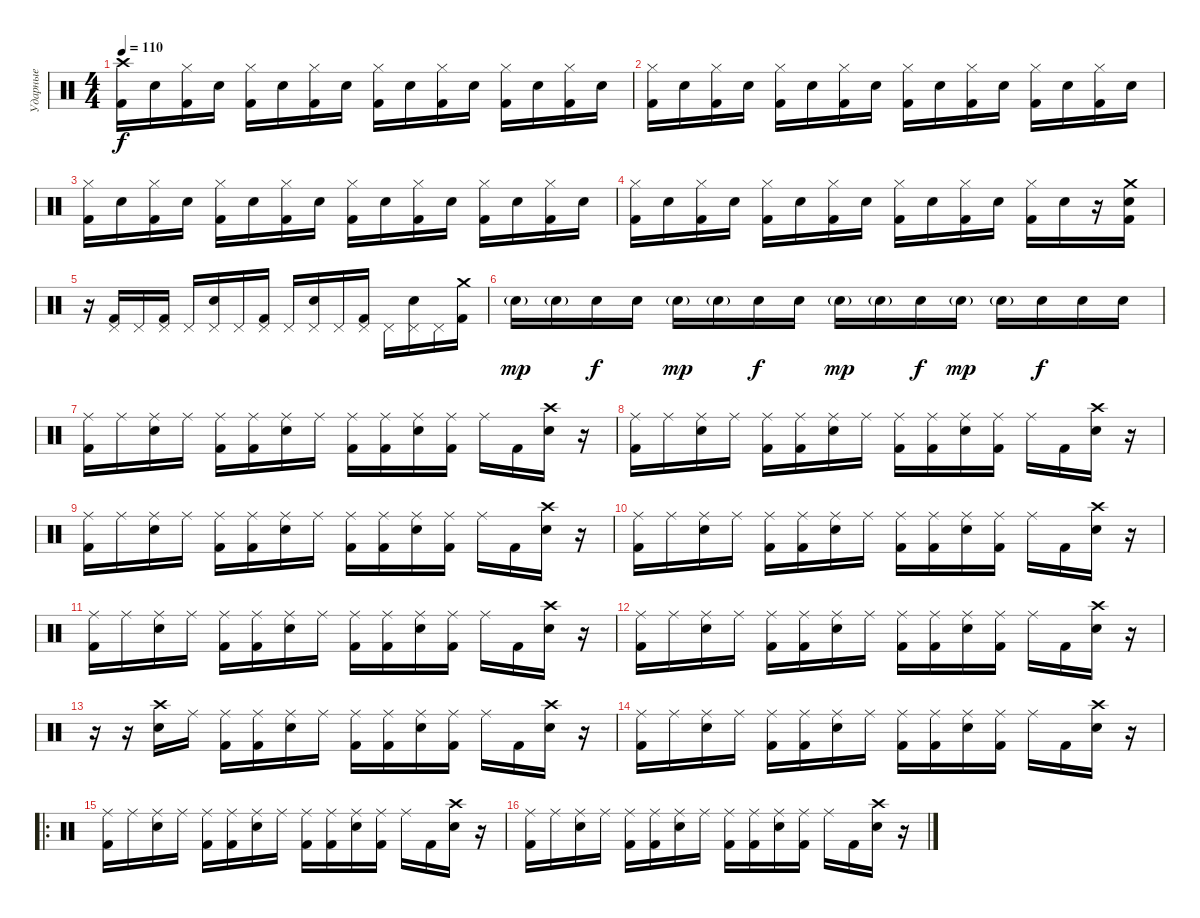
\track ("Ударные" "Ударные") {instrument percussion}
\staff {score}
\articulation defaults
\ts (4 4)
\tempo 110
\clef neutral
\ks c
("Kick (hit) 2" "Crash high (hit)").16{dy f} "Electric Snare (hit)".16 ("Kick (hit) 2" "Hi-Hat (closed)").16 "Electric Snare (hit)".16 ("Kick (hit) 2" "Hi-Hat (closed)").16 "Electric Snare (hit)".16 ("Kick (hit) 2" "Hi-Hat (closed)").16 "Electric Snare (hit)".16 ("Kick (hit) 2" "Hi-Hat (closed)").16 "Electric Snare (hit)".16 ("Kick (hit) 2" "Hi-Hat (closed)").16 "Electric Snare (hit)".16 ("Kick (hit) 2" "Hi-Hat (closed)").16 "Electric Snare (hit)".16 ("Kick (hit) 2" "Hi-Hat (closed)").16 "Electric Snare (hit)".16 |
("Kick (hit) 2" "Hi-Hat (closed)").16 "Electric Snare (hit)".16 ("Kick (hit) 2" "Hi-Hat (closed)").16 "Electric Snare (hit)".16 ("Kick (hit) 2" "Hi-Hat (closed)").16 "Electric Snare (hit)".16 ("Kick (hit) 2" "Hi-Hat (closed)").16 "Electric Snare (hit)".16 ("Kick (hit) 2" "Hi-Hat (closed)").16 "Electric Snare (hit)".16 ("Kick (hit) 2" "Hi-Hat (closed)").16 "Electric Snare (hit)".16 ("Kick (hit) 2" "Hi-Hat (closed)").16 "Electric Snare (hit)".16 ("Kick (hit) 2" "Hi-Hat (closed)").16 "Electric Snare (hit)".16 |
("Kick (hit) 2" "Hi-Hat (closed)").16 "Electric Snare (hit)".16 ("Kick (hit) 2" "Hi-Hat (closed)").16 "Electric Snare (hit)".16 ("Kick (hit) 2" "Hi-Hat (closed)").16 "Electric Snare (hit)".16 ("Kick (hit) 2" "Hi-Hat (closed)").16 "Electric Snare (hit)".16 ("Kick (hit) 2" "Hi-Hat (closed)").16 "Electric Snare (hit)".16 ("Kick (hit) 2" "Hi-Hat (closed)").16 "Electric Snare (hit)".16 ("Kick (hit) 2" "Hi-Hat (closed)").16 "Electric Snare (hit)".16 ("Kick (hit) 2" "Hi-Hat (closed)").16 "Electric Snare (hit)".16 |
("Kick (hit) 2" "Hi-Hat (closed)").16 "Electric Snare (hit)".16 ("Kick (hit) 2" "Hi-Hat (closed)").16 "Electric Snare (hit)".16 ("Kick (hit) 2" "Hi-Hat (closed)").16 "Electric Snare (hit)".16 ("Kick (hit) 2" "Hi-Hat (closed)").16 "Electric Snare (hit)".16 ("Kick (hit) 2" "Hi-Hat (closed)").16 "Electric Snare (hit)".16 ("Kick (hit) 2" "Hi-Hat (closed)").16 "Electric Snare (hit)".16 ("Kick (hit) 2" "Hi-Hat (closed)").16 "Electric Snare (hit)".16 r.16 ("Kick (hit) 2" "Electric Snare (hit)" "Crash medium (hit)").16 |
r.16 ("Kick (hit) 2" "Pedal Hi-Hat (hit)").16 "Pedal Hi-Hat (hit)".16 ("Kick (hit) 2" "Pedal Hi-Hat (hit)").16 "Pedal Hi-Hat (hit)".16 ("Electric Snare (hit)" "Pedal Hi-Hat (hit)").16 "Pedal Hi-Hat (hit)".16 ("Kick (hit) 2" "Pedal Hi-Hat (hit)").16 "Pedal Hi-Hat (hit)".16 ("Electric Snare (hit)" "Pedal Hi-Hat (hit)").16 "Pedal Hi-Hat (hit)".16 ("Kick (hit) 2" "Pedal Hi-Hat (hit)").16 "Pedal Hi-Hat (hit)".16 ("Electric Snare (hit)" "Pedal Hi-Hat (hit)").16 "Pedal Hi-Hat (hit)".16 ("Kick (hit) 2" "Crash medium (hit)").16 |
"Electric Snare (hit)"{g}.16{dy mp} "Electric Snare (hit)"{g}.16 "Electric Snare (hit)".16{dy f} "Electric Snare (hit)".16 "Electric Snare (hit)"{g}.16{dy mp} "Electric Snare (hit)"{g}.16 "Electric Snare (hit)".16{dy f} "Electric Snare (hit)".16 "Electric Snare (hit)"{g}.16{dy mp} "Electric Snare (hit)"{g}.16 "Electric Snare (hit)".16{dy f} "Electric Snare (hit)"{g}.16{dy mp} "Electric Snare (hit)"{g}.16 "Electric Snare (hit)".16{dy f} "Electric Snare (hit)".16 "Electric Snare (hit)".16 |
("Kick (hit) 2" "Ride (middle)").16 "Ride (middle)".16 ("Electric Snare (hit)" "Ride (middle)").16 "Ride (middle)".16 ("Kick (hit) 2" "Ride (middle)").16 ("Kick (hit) 2" "Ride (middle)").16 ("Electric Snare (hit)" "Ride (middle)").16 "Ride (middle)".16 ("Kick (hit) 2" "Ride (middle)").16 ("Kick (hit) 2" "Ride (middle)").16 ("Electric Snare (hit)" "Ride (middle)").16 ("Kick (hit) 2" "Ride (middle)").16 "Ride (middle)".16 "Kick (hit) 2".16 ("Electric Snare (hit)" "Crash high (hit)").16 r.16 |
("Kick (hit) 2" "Ride (middle)").16 "Ride (middle)".16 ("Electric Snare (hit)" "Ride (middle)").16 "Ride (middle)".16 ("Kick (hit) 2" "Ride (middle)").16 ("Kick (hit) 2" "Ride (middle)").16 ("Electric Snare (hit)" "Ride (middle)").16 "Ride (middle)".16 ("Kick (hit) 2" "Ride (middle)").16 ("Kick (hit) 2" "Ride (middle)").16 ("Electric Snare (hit)" "Ride (middle)").16 ("Kick (hit) 2" "Ride (middle)").16 "Ride (middle)".16 "Kick (hit) 2".16 ("Electric Snare (hit)" "Crash high (hit)").16 r.16 |
("Kick (hit) 2" "Ride (middle)").16 "Ride (middle)".16 ("Electric Snare (hit)" "Ride (middle)").16 "Ride (middle)".16 ("Kick (hit) 2" "Ride (middle)").16 ("Kick (hit) 2" "Ride (middle)").16 ("Electric Snare (hit)" "Ride (middle)").16 "Ride (middle)".16 ("Kick (hit) 2" "Ride (middle)").16 ("Kick (hit) 2" "Ride (middle)").16 ("Electric Snare (hit)" "Ride (middle)").16 ("Kick (hit) 2" "Ride (middle)").16 "Ride (middle)".16 "Kick (hit) 2".16 ("Electric Snare (hit)" "Crash high (hit)").16 r.16 |
("Kick (hit) 2" "Ride (middle)").16 "Ride (middle)".16 ("Electric Snare (hit)" "Ride (middle)").16 "Ride (middle)".16 ("Kick (hit) 2" "Ride (middle)").16 ("Kick (hit) 2" "Ride (middle)").16 ("Electric Snare (hit)" "Ride (middle)").16 "Ride (middle)".16 ("Kick (hit) 2" "Ride (middle)").16 ("Kick (hit) 2" "Ride (middle)").16 ("Electric Snare (hit)" "Ride (middle)").16 ("Kick (hit) 2" "Ride (middle)").16 "Ride (middle)".16 "Kick (hit) 2".16 ("Electric Snare (hit)" "Crash high (hit)").16 r.16 |
("Kick (hit) 2" "Ride (middle)").16 "Ride (middle)".16 ("Electric Snare (hit)" "Ride (middle)").16 "Ride (middle)".16 ("Kick (hit) 2" "Ride (middle)").16 ("Kick (hit) 2" "Ride (middle)").16 ("Electric Snare (hit)" "Ride (middle)").16 "Ride (middle)".16 ("Kick (hit) 2" "Ride (middle)").16 ("Kick (hit) 2" "Ride (middle)").16 ("Electric Snare (hit)" "Ride (middle)").16 ("Kick (hit) 2" "Ride (middle)").16 "Ride (middle)".16 "Kick (hit) 2".16 ("Electric Snare (hit)" "Crash high (hit)").16 r.16 |
("Kick (hit) 2" "Ride (middle)").16 "Ride (middle)".16 ("Electric Snare (hit)" "Ride (middle)").16 "Ride (middle)".16 ("Kick (hit) 2" "Ride (middle)").16 ("Kick (hit) 2" "Ride (middle)").16 ("Electric Snare (hit)" "Ride (middle)").16 "Ride (middle)".16 ("Kick (hit) 2" "Ride (middle)").16 ("Kick (hit) 2" "Ride (middle)").16 ("Electric Snare (hit)" "Ride (middle)").16 ("Kick (hit) 2" "Ride (middle)").16 "Ride (middle)".16 "Kick (hit) 2".16 ("Electric Snare (hit)" "Crash high (hit)").16 r.16 |
r.16 r.16 ("Electric Snare (hit)" "Crash high (hit)").16 "Ride (middle)".16 ("Kick (hit) 2" "Ride (middle)").16 ("Kick (hit) 2" "Ride (middle)").16 ("Electric Snare (hit)" "Ride (middle)").16 "Ride (middle)".16 ("Kick (hit) 2" "Ride (middle)").16 ("Kick (hit) 2" "Ride (middle)").16 ("Electric Snare (hit)" "Ride (middle)").16 ("Kick (hit) 2" "Ride (middle)").16 "Ride (middle)".16 "Kick (hit) 2".16 ("Electric Snare (hit)" "Crash high (hit)").16 r.16 |
("Kick (hit) 2" "Ride (middle)").16 "Ride (middle)".16 ("Electric Snare (hit)" "Ride (middle)").16 "Ride (middle)".16 ("Kick (hit) 2" "Ride (middle)").16 ("Kick (hit) 2" "Ride (middle)").16 ("Electric Snare (hit)" "Ride (middle)").16 "Ride (middle)".16 ("Kick (hit) 2" "Ride (middle)").16 ("Kick (hit) 2" "Ride (middle)").16 ("Electric Snare (hit)" "Ride (middle)").16 ("Kick (hit) 2" "Ride (middle)").16 "Ride (middle)".16 "Kick (hit) 2".16 ("Electric Snare (hit)" "Crash high (hit)").16 r.16 |
\ro
("Kick (hit) 2" "Ride (middle)").16 "Ride (middle)".16 ("Electric Snare (hit)" "Ride (middle)").16 "Ride (middle)".16 ("Kick (hit) 2" "Ride (middle)").16 ("Kick (hit) 2" "Ride (middle)").16 ("Electric Snare (hit)" "Ride (middle)").16 "Ride (middle)".16 ("Kick (hit) 2" "Ride (middle)").16 ("Kick (hit) 2" "Ride (middle)").16 ("Electric Snare (hit)" "Ride (middle)").16 ("Kick (hit) 2" "Ride (middle)").16 "Ride (middle)".16 "Kick (hit) 2".16 ("Electric Snare (hit)" "Crash high (hit)").16 r.16 |
("Kick (hit) 2" "Ride (middle)").16 "Ride (middle)".16 ("Electric Snare (hit)" "Ride (middle)").16 "Ride (middle)".16 ("Kick (hit) 2" "Ride (middle)").16 ("Kick (hit) 2" "Ride (middle)").16 ("Electric Snare (hit)" "Ride (middle)").16 "Ride (middle)".16 ("Kick (hit) 2" "Ride (middle)").16 ("Kick (hit) 2" "Ride (middle)").16 ("Electric Snare (hit)" "Ride (middle)").16 ("Kick (hit) 2" "Ride (middle)").16 "Ride (middle)".16 "Kick (hit) 2".16 ("Electric Snare (hit)" "Crash high (hit)").16 r.16
